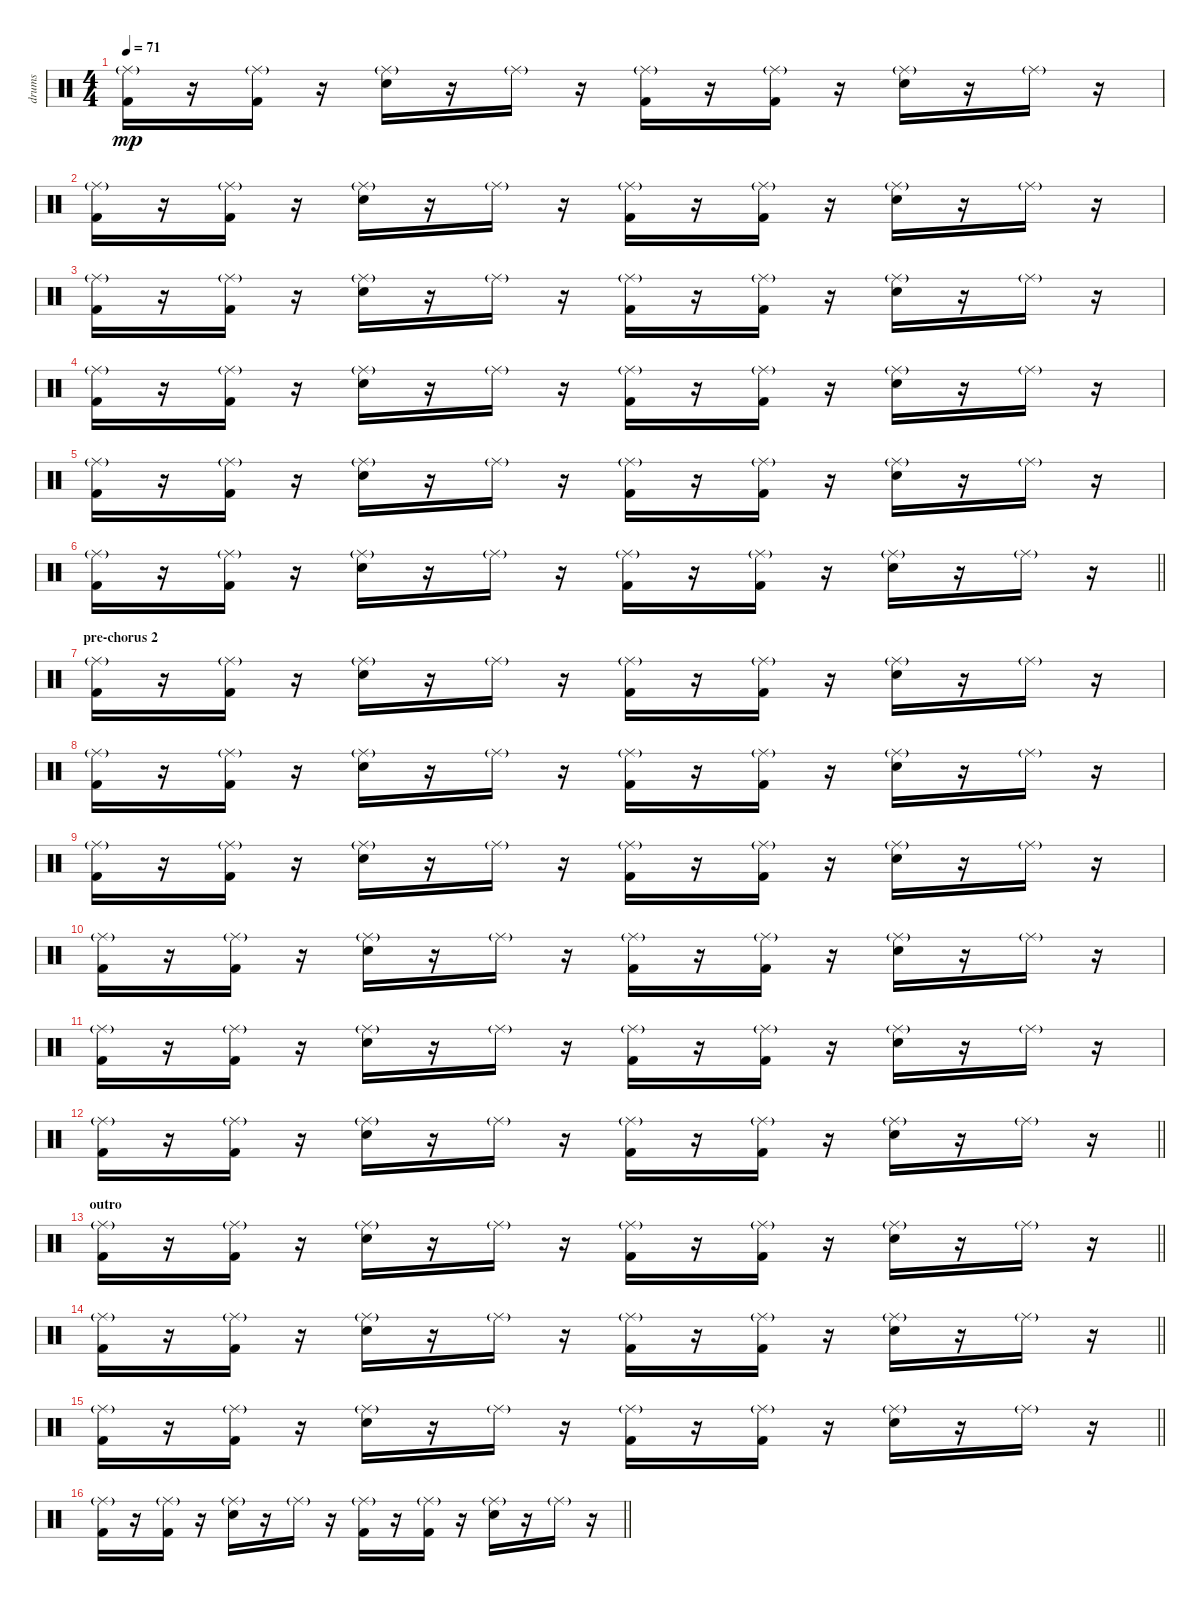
\track ("drums" "drums") {instrument percussion}
\staff {score}
\articulation defaults
\ts (4 4)
\tempo 71
\clef neutral
\ks c
("Kick (hit) 2" "Ride (middle)"{g}).16{dy mp} r.16 ("Kick (hit) 2" "Ride (middle)"{g}).16 r.16 ("Electric Snare (hit)" "Ride (middle)"{g}).16 r.16 "Ride (middle)"{g}.16 r.16 ("Kick (hit) 2" "Ride (middle)"{g}).16 r.16 ("Kick (hit) 2" "Ride (middle)"{g}).16 r.16 ("Electric Snare (hit)" "Ride (middle)"{g}).16 r.16 "Ride (middle)"{g}.16 r.16 |
("Kick (hit) 2" "Ride (middle)"{g}).16 r.16 ("Kick (hit) 2" "Ride (middle)"{g}).16 r.16 ("Electric Snare (hit)" "Ride (middle)"{g}).16 r.16 "Ride (middle)"{g}.16 r.16 ("Kick (hit) 2" "Ride (middle)"{g}).16 r.16 ("Kick (hit) 2" "Ride (middle)"{g}).16 r.16 ("Electric Snare (hit)" "Ride (middle)"{g}).16 r.16 "Ride (middle)"{g}.16 r.16 |
("Kick (hit) 2" "Ride (middle)"{g}).16 r.16 ("Kick (hit) 2" "Ride (middle)"{g}).16 r.16 ("Electric Snare (hit)" "Ride (middle)"{g}).16 r.16 "Ride (middle)"{g}.16 r.16 ("Kick (hit) 2" "Ride (middle)"{g}).16 r.16 ("Kick (hit) 2" "Ride (middle)"{g}).16 r.16 ("Electric Snare (hit)" "Ride (middle)"{g}).16 r.16 "Ride (middle)"{g}.16 r.16 |
("Kick (hit) 2" "Ride (middle)"{g}).16 r.16 ("Kick (hit) 2" "Ride (middle)"{g}).16 r.16 ("Electric Snare (hit)" "Ride (middle)"{g}).16 r.16 "Ride (middle)"{g}.16 r.16 ("Kick (hit) 2" "Ride (middle)"{g}).16 r.16 ("Kick (hit) 2" "Ride (middle)"{g}).16 r.16 ("Electric Snare (hit)" "Ride (middle)"{g}).16 r.16 "Ride (middle)"{g}.16 r.16 |
("Kick (hit) 2" "Ride (middle)"{g}).16 r.16 ("Kick (hit) 2" "Ride (middle)"{g}).16 r.16 ("Electric Snare (hit)" "Ride (middle)"{g}).16 r.16 "Ride (middle)"{g}.16 r.16 ("Kick (hit) 2" "Ride (middle)"{g}).16 r.16 ("Kick (hit) 2" "Ride (middle)"{g}).16 r.16 ("Electric Snare (hit)" "Ride (middle)"{g}).16 r.16 "Ride (middle)"{g}.16 r.16 |
\barLineRight lightlight
("Kick (hit) 2" "Ride (middle)"{g}).16 r.16 ("Kick (hit) 2" "Ride (middle)"{g}).16 r.16 ("Electric Snare (hit)" "Ride (middle)"{g}).16 r.16 "Ride (middle)"{g}.16 r.16 ("Kick (hit) 2" "Ride (middle)"{g}).16 r.16 ("Kick (hit) 2" "Ride (middle)"{g}).16 r.16 ("Electric Snare (hit)" "Ride (middle)"{g}).16 r.16 "Ride (middle)"{g}.16 r.16 |
\section ("" "pre-chorus 2")
("Kick (hit) 2" "Ride (middle)"{g}).16 r.16 ("Kick (hit) 2" "Ride (middle)"{g}).16 r.16 ("Electric Snare (hit)" "Ride (middle)"{g}).16 r.16 "Ride (middle)"{g}.16 r.16 ("Kick (hit) 2" "Ride (middle)"{g}).16 r.16 ("Kick (hit) 2" "Ride (middle)"{g}).16 r.16 ("Electric Snare (hit)" "Ride (middle)"{g}).16 r.16 "Ride (middle)"{g}.16 r.16 |
("Kick (hit) 2" "Ride (middle)"{g}).16 r.16 ("Kick (hit) 2" "Ride (middle)"{g}).16 r.16 ("Electric Snare (hit)" "Ride (middle)"{g}).16 r.16 "Ride (middle)"{g}.16 r.16 ("Kick (hit) 2" "Ride (middle)"{g}).16 r.16 ("Kick (hit) 2" "Ride (middle)"{g}).16 r.16 ("Electric Snare (hit)" "Ride (middle)"{g}).16 r.16 "Ride (middle)"{g}.16 r.16 |
("Kick (hit) 2" "Ride (middle)"{g}).16 r.16 ("Kick (hit) 2" "Ride (middle)"{g}).16 r.16 ("Electric Snare (hit)" "Ride (middle)"{g}).16 r.16 "Ride (middle)"{g}.16 r.16 ("Kick (hit) 2" "Ride (middle)"{g}).16 r.16 ("Kick (hit) 2" "Ride (middle)"{g}).16 r.16 ("Electric Snare (hit)" "Ride (middle)"{g}).16 r.16 "Ride (middle)"{g}.16 r.16 |
("Kick (hit) 2" "Ride (middle)"{g}).16 r.16 ("Kick (hit) 2" "Ride (middle)"{g}).16 r.16 ("Electric Snare (hit)" "Ride (middle)"{g}).16 r.16 "Ride (middle)"{g}.16 r.16 ("Kick (hit) 2" "Ride (middle)"{g}).16 r.16 ("Kick (hit) 2" "Ride (middle)"{g}).16 r.16 ("Electric Snare (hit)" "Ride (middle)"{g}).16 r.16 "Ride (middle)"{g}.16 r.16 |
("Kick (hit) 2" "Ride (middle)"{g}).16 r.16 ("Kick (hit) 2" "Ride (middle)"{g}).16 r.16 ("Electric Snare (hit)" "Ride (middle)"{g}).16 r.16 "Ride (middle)"{g}.16 r.16 ("Kick (hit) 2" "Ride (middle)"{g}).16 r.16 ("Kick (hit) 2" "Ride (middle)"{g}).16 r.16 ("Electric Snare (hit)" "Ride (middle)"{g}).16 r.16 "Ride (middle)"{g}.16 r.16 |
\barLineRight lightlight
("Kick (hit) 2" "Ride (middle)"{g}).16 r.16 ("Kick (hit) 2" "Ride (middle)"{g}).16 r.16 ("Electric Snare (hit)" "Ride (middle)"{g}).16 r.16 "Ride (middle)"{g}.16 r.16 ("Kick (hit) 2" "Ride (middle)"{g}).16 r.16 ("Kick (hit) 2" "Ride (middle)"{g}).16 r.16 ("Electric Snare (hit)" "Ride (middle)"{g}).16 r.16 "Ride (middle)"{g}.16 r.16 |
\section ("" "outro")
\barLineRight lightlight
("Kick (hit) 2" "Ride (middle)"{g}).16 r.16 ("Kick (hit) 2" "Ride (middle)"{g}).16 r.16 ("Electric Snare (hit)" "Ride (middle)"{g}).16 r.16 "Ride (middle)"{g}.16 r.16 ("Kick (hit) 2" "Ride (middle)"{g}).16 r.16 ("Kick (hit) 2" "Ride (middle)"{g}).16 r.16 ("Electric Snare (hit)" "Ride (middle)"{g}).16 r.16 "Ride (middle)"{g}.16 r.16 |
\barLineRight lightlight
("Kick (hit) 2" "Ride (middle)"{g}).16 r.16 ("Kick (hit) 2" "Ride (middle)"{g}).16 r.16 ("Electric Snare (hit)" "Ride (middle)"{g}).16 r.16 "Ride (middle)"{g}.16 r.16 ("Kick (hit) 2" "Ride (middle)"{g}).16 r.16 ("Kick (hit) 2" "Ride (middle)"{g}).16 r.16 ("Electric Snare (hit)" "Ride (middle)"{g}).16 r.16 "Ride (middle)"{g}.16 r.16 |
\barLineRight lightlight
("Kick (hit) 2" "Ride (middle)"{g}).16 r.16 ("Kick (hit) 2" "Ride (middle)"{g}).16 r.16 ("Electric Snare (hit)" "Ride (middle)"{g}).16 r.16 "Ride (middle)"{g}.16 r.16 ("Kick (hit) 2" "Ride (middle)"{g}).16 r.16 ("Kick (hit) 2" "Ride (middle)"{g}).16 r.16 ("Electric Snare (hit)" "Ride (middle)"{g}).16 r.16 "Ride (middle)"{g}.16 r.16 |
\barLineRight lightlight
("Kick (hit) 2" "Ride (middle)"{g}).16 r.16 ("Kick (hit) 2" "Ride (middle)"{g}).16 r.16 ("Electric Snare (hit)" "Ride (middle)"{g}).16 r.16 "Ride (middle)"{g}.16 r.16 ("Kick (hit) 2" "Ride (middle)"{g}).16 r.16 ("Kick (hit) 2" "Ride (middle)"{g}).16 r.16 ("Electric Snare (hit)" "Ride (middle)"{g}).16 r.16 "Ride (middle)"{g}.16 r.16
